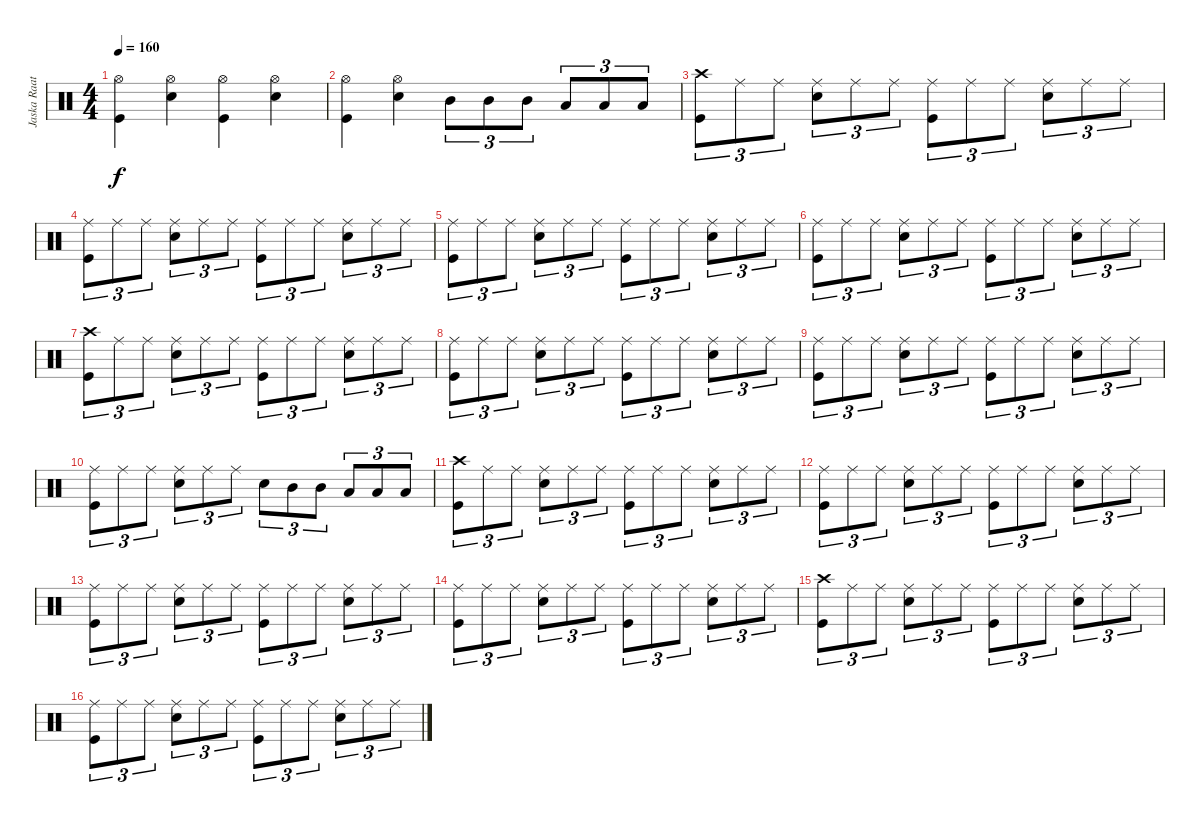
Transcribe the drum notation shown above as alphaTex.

\track ("Jaska Raatikainen" "Jaska Raat") {instrument percussion}
\staff {score}
\articulation defaults
\ts (4 4)
\tempo 160
\clef neutral
\ks c
("Hi-Hat (open)" "Kick (hit)").4{dy f} ("Hi-Hat (open)" "Electric Snare (hit)").4 ("Hi-Hat (open)" "Kick (hit)").4 ("Hi-Hat (open)" "Electric Snare (hit)").4 |
("Hi-Hat (open)" "Kick (hit)").4 ("Hi-Hat (open)" "Electric Snare (hit)").4 "Mid Tom (hit)".8{tu (3 2)} "Mid Tom (hit)".8{tu (3 2)} "Mid Tom (hit)".8{tu (3 2)} "Low Tom (hit)".8{tu (3 2)} "Low Tom (hit)".8{tu (3 2)} "Low Tom (hit)".8{tu (3 2)} |
("Crash high (hit)" "Kick (hit)").8{tu (3 2)} "Ride (middle)".8{tu (3 2)} "Ride (middle)".8{tu (3 2)} ("Ride (middle)" "Electric Snare (hit)").8{tu (3 2)} "Ride (middle)".8{tu (3 2)} "Ride (middle)".8{tu (3 2)} ("Ride (middle)" "Kick (hit)").8{tu (3 2)} "Ride (middle)".8{tu (3 2)} "Ride (middle)".8{tu (3 2)} ("Ride (middle)" "Electric Snare (hit)").8{tu (3 2)} "Ride (middle)".8{tu (3 2)} "Ride (middle)".8{tu (3 2)} |
("Ride (middle)" "Kick (hit)").8{tu (3 2)} "Ride (middle)".8{tu (3 2)} "Ride (middle)".8{tu (3 2)} ("Ride (middle)" "Electric Snare (hit)").8{tu (3 2)} "Ride (middle)".8{tu (3 2)} "Ride (middle)".8{tu (3 2)} ("Ride (middle)" "Kick (hit)").8{tu (3 2)} "Ride (middle)".8{tu (3 2)} "Ride (middle)".8{tu (3 2)} ("Ride (middle)" "Electric Snare (hit)").8{tu (3 2)} "Ride (middle)".8{tu (3 2)} "Ride (middle)".8{tu (3 2)} |
("Ride (middle)" "Kick (hit)").8{tu (3 2)} "Ride (middle)".8{tu (3 2)} "Ride (middle)".8{tu (3 2)} ("Ride (middle)" "Electric Snare (hit)").8{tu (3 2)} "Ride (middle)".8{tu (3 2)} "Ride (middle)".8{tu (3 2)} ("Ride (middle)" "Kick (hit)").8{tu (3 2)} "Ride (middle)".8{tu (3 2)} "Ride (middle)".8{tu (3 2)} ("Ride (middle)" "Electric Snare (hit)").8{tu (3 2)} "Ride (middle)".8{tu (3 2)} "Ride (middle)".8{tu (3 2)} |
("Ride (middle)" "Kick (hit)").8{tu (3 2)} "Ride (middle)".8{tu (3 2)} "Ride (middle)".8{tu (3 2)} ("Ride (middle)" "Electric Snare (hit)").8{tu (3 2)} "Ride (middle)".8{tu (3 2)} "Ride (middle)".8{tu (3 2)} ("Ride (middle)" "Kick (hit)").8{tu (3 2)} "Ride (middle)".8{tu (3 2)} "Ride (middle)".8{tu (3 2)} ("Ride (middle)" "Electric Snare (hit)").8{tu (3 2)} "Ride (middle)".8{tu (3 2)} "Ride (middle)".8{tu (3 2)} |
("Crash high (hit)" "Kick (hit)").8{tu (3 2)} "Ride (middle)".8{tu (3 2)} "Ride (middle)".8{tu (3 2)} ("Ride (middle)" "Electric Snare (hit)").8{tu (3 2)} "Ride (middle)".8{tu (3 2)} "Ride (middle)".8{tu (3 2)} ("Ride (middle)" "Kick (hit)").8{tu (3 2)} "Ride (middle)".8{tu (3 2)} "Ride (middle)".8{tu (3 2)} ("Ride (middle)" "Electric Snare (hit)").8{tu (3 2)} "Ride (middle)".8{tu (3 2)} "Ride (middle)".8{tu (3 2)} |
("Ride (middle)" "Kick (hit)").8{tu (3 2)} "Ride (middle)".8{tu (3 2)} "Ride (middle)".8{tu (3 2)} ("Ride (middle)" "Electric Snare (hit)").8{tu (3 2)} "Ride (middle)".8{tu (3 2)} "Ride (middle)".8{tu (3 2)} ("Ride (middle)" "Kick (hit)").8{tu (3 2)} "Ride (middle)".8{tu (3 2)} "Ride (middle)".8{tu (3 2)} ("Ride (middle)" "Electric Snare (hit)").8{tu (3 2)} "Ride (middle)".8{tu (3 2)} "Ride (middle)".8{tu (3 2)} |
("Ride (middle)" "Kick (hit)").8{tu (3 2)} "Ride (middle)".8{tu (3 2)} "Ride (middle)".8{tu (3 2)} ("Ride (middle)" "Electric Snare (hit)").8{tu (3 2)} "Ride (middle)".8{tu (3 2)} "Ride (middle)".8{tu (3 2)} ("Ride (middle)" "Kick (hit)").8{tu (3 2)} "Ride (middle)".8{tu (3 2)} "Ride (middle)".8{tu (3 2)} ("Ride (middle)" "Electric Snare (hit)").8{tu (3 2)} "Ride (middle)".8{tu (3 2)} "Ride (middle)".8{tu (3 2)} |
("Ride (middle)" "Kick (hit)").8{tu (3 2)} "Ride (middle)".8{tu (3 2)} "Ride (middle)".8{tu (3 2)} ("Ride (middle)" "Electric Snare (hit)").8{tu (3 2)} "Ride (middle)".8{tu (3 2)} "Ride (middle)".8{tu (3 2)} "Electric Snare (hit)".8{tu (3 2)} "Mid Tom (hit)".8{tu (3 2)} "Mid Tom (hit)".8{tu (3 2)} "Low Tom (hit)".8{tu (3 2)} "Low Tom (hit)".8{tu (3 2)} "Low Tom (hit)".8{tu (3 2)} |
("Crash high (hit)" "Kick (hit)").8{tu (3 2)} "Ride (middle)".8{tu (3 2)} "Ride (middle)".8{tu (3 2)} ("Ride (middle)" "Electric Snare (hit)").8{tu (3 2)} "Ride (middle)".8{tu (3 2)} "Ride (middle)".8{tu (3 2)} ("Ride (middle)" "Kick (hit)").8{tu (3 2)} "Ride (middle)".8{tu (3 2)} "Ride (middle)".8{tu (3 2)} ("Ride (middle)" "Electric Snare (hit)").8{tu (3 2)} "Ride (middle)".8{tu (3 2)} "Ride (middle)".8{tu (3 2)} |
("Ride (middle)" "Kick (hit)").8{tu (3 2)} "Ride (middle)".8{tu (3 2)} "Ride (middle)".8{tu (3 2)} ("Ride (middle)" "Electric Snare (hit)").8{tu (3 2)} "Ride (middle)".8{tu (3 2)} "Ride (middle)".8{tu (3 2)} ("Ride (middle)" "Kick (hit)").8{tu (3 2)} "Ride (middle)".8{tu (3 2)} "Ride (middle)".8{tu (3 2)} ("Ride (middle)" "Electric Snare (hit)").8{tu (3 2)} "Ride (middle)".8{tu (3 2)} "Ride (middle)".8{tu (3 2)} |
("Ride (middle)" "Kick (hit)").8{tu (3 2)} "Ride (middle)".8{tu (3 2)} "Ride (middle)".8{tu (3 2)} ("Ride (middle)" "Electric Snare (hit)").8{tu (3 2)} "Ride (middle)".8{tu (3 2)} "Ride (middle)".8{tu (3 2)} ("Ride (middle)" "Kick (hit)").8{tu (3 2)} "Ride (middle)".8{tu (3 2)} "Ride (middle)".8{tu (3 2)} ("Ride (middle)" "Electric Snare (hit)").8{tu (3 2)} "Ride (middle)".8{tu (3 2)} "Ride (middle)".8{tu (3 2)} |
("Ride (middle)" "Kick (hit)").8{tu (3 2)} "Ride (middle)".8{tu (3 2)} "Ride (middle)".8{tu (3 2)} ("Ride (middle)" "Electric Snare (hit)").8{tu (3 2)} "Ride (middle)".8{tu (3 2)} "Ride (middle)".8{tu (3 2)} ("Ride (middle)" "Kick (hit)").8{tu (3 2)} "Ride (middle)".8{tu (3 2)} "Ride (middle)".8{tu (3 2)} ("Ride (middle)" "Electric Snare (hit)").8{tu (3 2)} "Ride (middle)".8{tu (3 2)} "Ride (middle)".8{tu (3 2)} |
("Crash high (hit)" "Kick (hit)").8{tu (3 2)} "Ride (middle)".8{tu (3 2)} "Ride (middle)".8{tu (3 2)} ("Ride (middle)" "Electric Snare (hit)").8{tu (3 2)} "Ride (middle)".8{tu (3 2)} "Ride (middle)".8{tu (3 2)} ("Ride (middle)" "Kick (hit)").8{tu (3 2)} "Ride (middle)".8{tu (3 2)} "Ride (middle)".8{tu (3 2)} ("Ride (middle)" "Electric Snare (hit)").8{tu (3 2)} "Ride (middle)".8{tu (3 2)} "Ride (middle)".8{tu (3 2)} |
("Ride (middle)" "Kick (hit)").8{tu (3 2)} "Ride (middle)".8{tu (3 2)} "Ride (middle)".8{tu (3 2)} ("Ride (middle)" "Electric Snare (hit)").8{tu (3 2)} "Ride (middle)".8{tu (3 2)} "Ride (middle)".8{tu (3 2)} ("Ride (middle)" "Kick (hit)").8{tu (3 2)} "Ride (middle)".8{tu (3 2)} "Ride (middle)".8{tu (3 2)} ("Ride (middle)" "Electric Snare (hit)").8{tu (3 2)} "Ride (middle)".8{tu (3 2)} "Ride (middle)".8{tu (3 2)}
